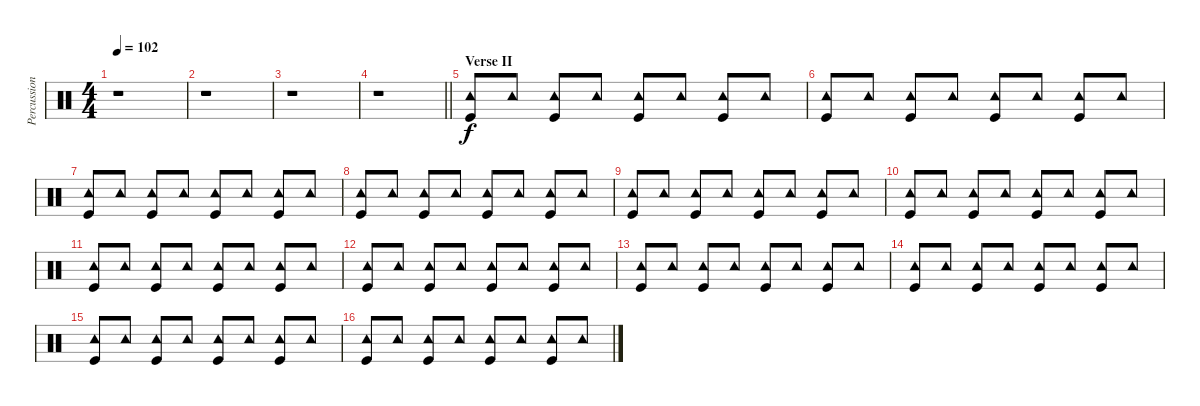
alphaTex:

\track ("Percussion" "Percussion") {instrument percussion}
\staff {score}
\articulation defaults
\ts (4 4)
\tempo 102
\clef neutral
\ks c
r.1{dy f} |
r.1 |
r.1 |
\barLineRight lightlight
r.1 |
\section ("" "Verse II")
("Tambourine (hit)" "Kick (hit)").8 "Tambourine (hit)".8 ("Tambourine (hit)" "Kick (hit)").8 "Tambourine (hit)".8 ("Tambourine (hit)" "Kick (hit)").8 "Tambourine (hit)".8 ("Tambourine (hit)" "Kick (hit)").8 "Tambourine (hit)".8 |
("Tambourine (hit)" "Kick (hit)").8 "Tambourine (hit)".8 ("Tambourine (hit)" "Kick (hit)").8 "Tambourine (hit)".8 ("Tambourine (hit)" "Kick (hit)").8 "Tambourine (hit)".8 ("Tambourine (hit)" "Kick (hit)").8 "Tambourine (hit)".8 |
("Tambourine (hit)" "Kick (hit)").8 "Tambourine (hit)".8 ("Tambourine (hit)" "Kick (hit)").8 "Tambourine (hit)".8 ("Tambourine (hit)" "Kick (hit)").8 "Tambourine (hit)".8 ("Tambourine (hit)" "Kick (hit)").8 "Tambourine (hit)".8 |
("Tambourine (hit)" "Kick (hit)").8 "Tambourine (hit)".8 ("Tambourine (hit)" "Kick (hit)").8 "Tambourine (hit)".8 ("Tambourine (hit)" "Kick (hit)").8 "Tambourine (hit)".8 ("Tambourine (hit)" "Kick (hit)").8 "Tambourine (hit)".8 |
("Tambourine (hit)" "Kick (hit)").8 "Tambourine (hit)".8 ("Tambourine (hit)" "Kick (hit)").8 "Tambourine (hit)".8 ("Tambourine (hit)" "Kick (hit)").8 "Tambourine (hit)".8 ("Tambourine (hit)" "Kick (hit)").8 "Tambourine (hit)".8 |
("Tambourine (hit)" "Kick (hit)").8 "Tambourine (hit)".8 ("Tambourine (hit)" "Kick (hit)").8 "Tambourine (hit)".8 ("Tambourine (hit)" "Kick (hit)").8 "Tambourine (hit)".8 ("Tambourine (hit)" "Kick (hit)").8 "Tambourine (hit)".8 |
("Tambourine (hit)" "Kick (hit)").8 "Tambourine (hit)".8 ("Tambourine (hit)" "Kick (hit)").8 "Tambourine (hit)".8 ("Tambourine (hit)" "Kick (hit)").8 "Tambourine (hit)".8 ("Tambourine (hit)" "Kick (hit)").8 "Tambourine (hit)".8 |
("Tambourine (hit)" "Kick (hit)").8 "Tambourine (hit)".8 ("Tambourine (hit)" "Kick (hit)").8 "Tambourine (hit)".8 ("Tambourine (hit)" "Kick (hit)").8 "Tambourine (hit)".8 ("Tambourine (hit)" "Kick (hit)").8 "Tambourine (hit)".8 |
("Tambourine (hit)" "Kick (hit)").8 "Tambourine (hit)".8 ("Tambourine (hit)" "Kick (hit)").8 "Tambourine (hit)".8 ("Tambourine (hit)" "Kick (hit)").8 "Tambourine (hit)".8 ("Tambourine (hit)" "Kick (hit)").8 "Tambourine (hit)".8 |
("Tambourine (hit)" "Kick (hit)").8 "Tambourine (hit)".8 ("Tambourine (hit)" "Kick (hit)").8 "Tambourine (hit)".8 ("Tambourine (hit)" "Kick (hit)").8 "Tambourine (hit)".8 ("Tambourine (hit)" "Kick (hit)").8 "Tambourine (hit)".8 |
("Tambourine (hit)" "Kick (hit)").8 "Tambourine (hit)".8 ("Tambourine (hit)" "Kick (hit)").8 "Tambourine (hit)".8 ("Tambourine (hit)" "Kick (hit)").8 "Tambourine (hit)".8 ("Tambourine (hit)" "Kick (hit)").8 "Tambourine (hit)".8 |
("Tambourine (hit)" "Kick (hit)").8 "Tambourine (hit)".8 ("Tambourine (hit)" "Kick (hit)").8 "Tambourine (hit)".8 ("Tambourine (hit)" "Kick (hit)").8 "Tambourine (hit)".8 ("Tambourine (hit)" "Kick (hit)").8 "Tambourine (hit)".8
